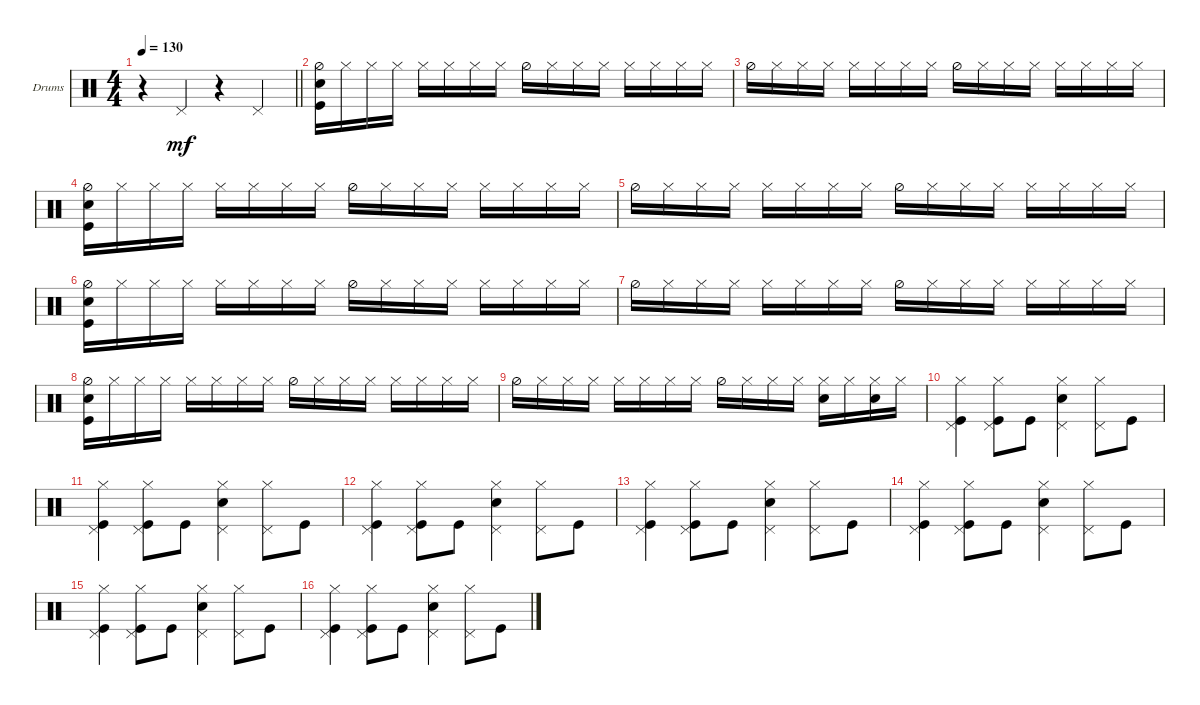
\defaultSystemsLayout 4
\bracketExtendMode groupsimilarinstruments
\firstSystemTrackNameOrientation horizontal
\otherSystemsTrackNameOrientation horizontal
\chordDiagramsInScore
\track ("Drumkit" "Drums") {instrument percussion}
\staff {score}
\articulation defaults
\ts (4 4)
\tempo 130
\clef neutral
\barLineRight lightlight
\ks c
r.4{dy mf} "Pedal Hi-Hat (hit)".4 r.4 "Pedal Hi-Hat (hit)".4 |
("Snare (hit) 2" "Kick (hit)" "Hi-Hat (half)").16 "Hi-Hat (closed)".16 "Hi-Hat (closed)".16 "Hi-Hat (closed)".16 "Hi-Hat (closed)".16 "Hi-Hat (closed)".16 "Hi-Hat (closed)".16 "Hi-Hat (closed)".16 "Hi-Hat (half)".16 "Hi-Hat (closed)".16 "Hi-Hat (closed)".16 "Hi-Hat (closed)".16 "Hi-Hat (closed)".16 "Hi-Hat (closed)".16 "Hi-Hat (closed)".16 "Hi-Hat (closed)".16 |
"Hi-Hat (half)".16 "Hi-Hat (closed)".16 "Hi-Hat (closed)".16 "Hi-Hat (closed)".16 "Hi-Hat (closed)".16 "Hi-Hat (closed)".16 "Hi-Hat (closed)".16 "Hi-Hat (closed)".16 "Hi-Hat (half)".16 "Hi-Hat (closed)".16 "Hi-Hat (closed)".16 "Hi-Hat (closed)".16 "Hi-Hat (closed)".16 "Hi-Hat (closed)".16 "Hi-Hat (closed)".16 "Hi-Hat (closed)".16 |
("Snare (hit) 2" "Kick (hit)" "Hi-Hat (half)").16 "Hi-Hat (closed)".16 "Hi-Hat (closed)".16 "Hi-Hat (closed)".16 "Hi-Hat (closed)".16 "Hi-Hat (closed)".16 "Hi-Hat (closed)".16 "Hi-Hat (closed)".16 "Hi-Hat (half)".16 "Hi-Hat (closed)".16 "Hi-Hat (closed)".16 "Hi-Hat (closed)".16 "Hi-Hat (closed)".16 "Hi-Hat (closed)".16 "Hi-Hat (closed)".16 "Hi-Hat (closed)".16 |
"Hi-Hat (half)".16 "Hi-Hat (closed)".16 "Hi-Hat (closed)".16 "Hi-Hat (closed)".16 "Hi-Hat (closed)".16 "Hi-Hat (closed)".16 "Hi-Hat (closed)".16 "Hi-Hat (closed)".16 "Hi-Hat (half)".16 "Hi-Hat (closed)".16 "Hi-Hat (closed)".16 "Hi-Hat (closed)".16 "Hi-Hat (closed)".16 "Hi-Hat (closed)".16 "Hi-Hat (closed)".16 "Hi-Hat (closed)".16 |
("Snare (hit) 2" "Kick (hit)" "Hi-Hat (half)").16 "Hi-Hat (closed)".16 "Hi-Hat (closed)".16 "Hi-Hat (closed)".16 "Hi-Hat (closed)".16 "Hi-Hat (closed)".16 "Hi-Hat (closed)".16 "Hi-Hat (closed)".16 "Hi-Hat (half)".16 "Hi-Hat (closed)".16 "Hi-Hat (closed)".16 "Hi-Hat (closed)".16 "Hi-Hat (closed)".16 "Hi-Hat (closed)".16 "Hi-Hat (closed)".16 "Hi-Hat (closed)".16 |
"Hi-Hat (half)".16 "Hi-Hat (closed)".16 "Hi-Hat (closed)".16 "Hi-Hat (closed)".16 "Hi-Hat (closed)".16 "Hi-Hat (closed)".16 "Hi-Hat (closed)".16 "Hi-Hat (closed)".16 "Hi-Hat (half)".16 "Hi-Hat (closed)".16 "Hi-Hat (closed)".16 "Hi-Hat (closed)".16 "Hi-Hat (closed)".16 "Hi-Hat (closed)".16 "Hi-Hat (closed)".16 "Hi-Hat (closed)".16 |
("Snare (hit) 2" "Kick (hit)" "Hi-Hat (half)").16 "Hi-Hat (closed)".16 "Hi-Hat (closed)".16 "Hi-Hat (closed)".16 "Hi-Hat (closed)".16 "Hi-Hat (closed)".16 "Hi-Hat (closed)".16 "Hi-Hat (closed)".16 "Hi-Hat (half)".16 "Hi-Hat (closed)".16 "Hi-Hat (closed)".16 "Hi-Hat (closed)".16 "Hi-Hat (closed)".16 "Hi-Hat (closed)".16 "Hi-Hat (closed)".16 "Hi-Hat (closed)".16 |
"Hi-Hat (half)".16 "Hi-Hat (closed)".16 "Hi-Hat (closed)".16 "Hi-Hat (closed)".16 "Hi-Hat (closed)".16 "Hi-Hat (closed)".16 "Hi-Hat (closed)".16 "Hi-Hat (closed)".16 "Hi-Hat (half)".16 "Hi-Hat (closed)".16 "Hi-Hat (closed)".16 "Hi-Hat (closed)".16 ("Hi-Hat (closed)" "Snare (hit) 2").16 "Hi-Hat (closed)".16 ("Hi-Hat (closed)" "Snare (hit) 2").16 "Hi-Hat (closed)".16 |
("Kick (hit)" "Hi-Hat (closed)" "Pedal Hi-Hat (hit)").4 ("Kick (hit)" "Hi-Hat (closed)" "Pedal Hi-Hat (hit)").8 "Kick (hit)".8 ("Snare (hit) 2" "Hi-Hat (closed)" "Pedal Hi-Hat (hit)").4 ("Pedal Hi-Hat (hit)" "Hi-Hat (closed)").8 "Kick (hit)".8 |
("Kick (hit)" "Hi-Hat (closed)" "Pedal Hi-Hat (hit)").4 ("Kick (hit)" "Hi-Hat (closed)" "Pedal Hi-Hat (hit)").8 "Kick (hit)".8 ("Snare (hit) 2" "Hi-Hat (closed)" "Pedal Hi-Hat (hit)").4 ("Pedal Hi-Hat (hit)" "Hi-Hat (closed)").8 "Kick (hit)".8 |
("Kick (hit)" "Hi-Hat (closed)" "Pedal Hi-Hat (hit)").4 ("Kick (hit)" "Hi-Hat (closed)" "Pedal Hi-Hat (hit)").8 "Kick (hit)".8 ("Snare (hit) 2" "Hi-Hat (closed)" "Pedal Hi-Hat (hit)").4 ("Pedal Hi-Hat (hit)" "Hi-Hat (closed)").8 "Kick (hit)".8 |
("Kick (hit)" "Hi-Hat (closed)" "Pedal Hi-Hat (hit)").4 ("Kick (hit)" "Hi-Hat (closed)" "Pedal Hi-Hat (hit)").8 "Kick (hit)".8 ("Snare (hit) 2" "Hi-Hat (closed)" "Pedal Hi-Hat (hit)").4 ("Pedal Hi-Hat (hit)" "Hi-Hat (closed)").8 "Kick (hit)".8 |
("Kick (hit)" "Hi-Hat (closed)" "Pedal Hi-Hat (hit)").4 ("Kick (hit)" "Hi-Hat (closed)" "Pedal Hi-Hat (hit)").8 "Kick (hit)".8 ("Snare (hit) 2" "Hi-Hat (closed)" "Pedal Hi-Hat (hit)").4 ("Pedal Hi-Hat (hit)" "Hi-Hat (closed)").8 "Kick (hit)".8 |
("Kick (hit)" "Hi-Hat (closed)" "Pedal Hi-Hat (hit)").4 ("Kick (hit)" "Hi-Hat (closed)" "Pedal Hi-Hat (hit)").8 "Kick (hit)".8 ("Snare (hit) 2" "Hi-Hat (closed)" "Pedal Hi-Hat (hit)").4 ("Pedal Hi-Hat (hit)" "Hi-Hat (closed)").8 "Kick (hit)".8 |
("Kick (hit)" "Hi-Hat (closed)" "Pedal Hi-Hat (hit)").4 ("Kick (hit)" "Hi-Hat (closed)" "Pedal Hi-Hat (hit)").8 "Kick (hit)".8 ("Snare (hit) 2" "Hi-Hat (closed)" "Pedal Hi-Hat (hit)").4 ("Pedal Hi-Hat (hit)" "Hi-Hat (closed)").8 "Kick (hit)".8
